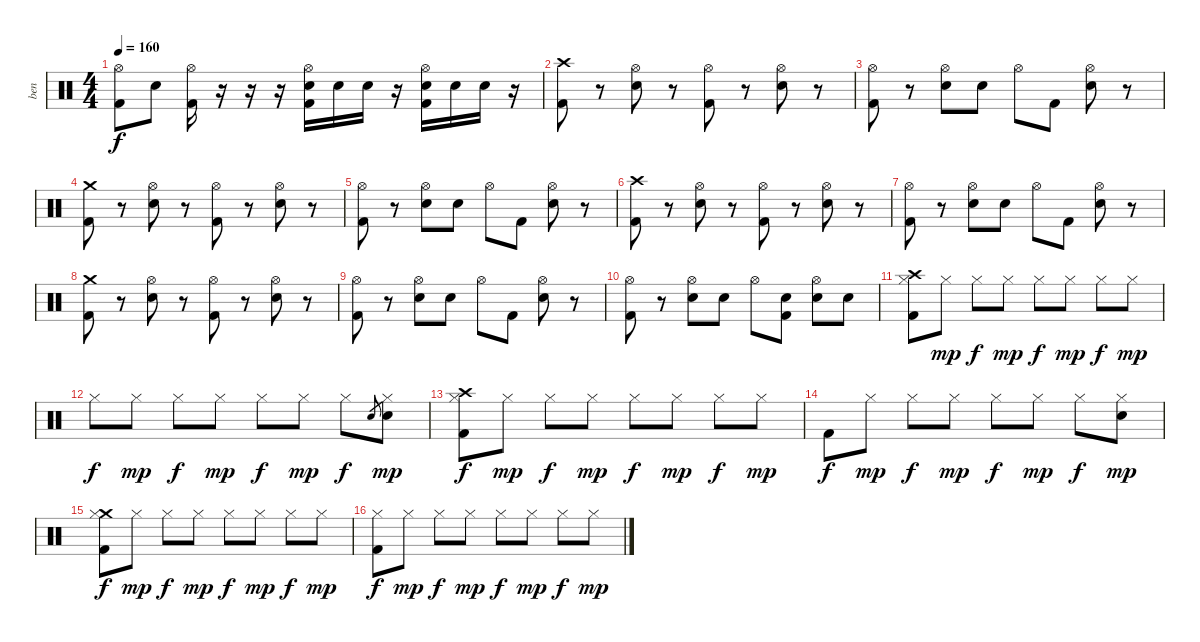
\track ("ben" "ben") {instrument percussion}
\staff {score}
\articulation defaults
\ts (4 4)
\tempo 160
\clef neutral
\ks c
("Hi-Hat (open)" "Kick (hit) 2").8{dy f} "Electric Snare (hit)".8 ("Hi-Hat (open)" "Kick (hit) 2").16 r.16 r.16 r.16 ("Hi-Hat (open)" "Electric Snare (hit)" "Kick (hit) 2").16 "Electric Snare (hit)".16 "Electric Snare (hit)".16 r.16 ("Hi-Hat (open)" "Electric Snare (hit)" "Kick (hit) 2").16 "Electric Snare (hit)".16 "Electric Snare (hit)".16 r.16 |
("Crash high (hit)" "Kick (hit) 2").8 r.8 ("Hi-Hat (open)" "Electric Snare (hit)").8 r.8 ("Hi-Hat (open)" "Kick (hit) 2").8 r.8 ("Hi-Hat (open)" "Electric Snare (hit)").8 r.8 |
("Hi-Hat (open)" "Kick (hit) 2").8 r.8 ("Hi-Hat (open)" "Electric Snare (hit)").8 "Electric Snare (hit)".8 "Hi-Hat (open)".8 "Kick (hit) 2".8 ("Hi-Hat (open)" "Electric Snare (hit)").8 r.8 |
("Crash medium (hit)" "Kick (hit) 2").8 r.8 ("Hi-Hat (open)" "Electric Snare (hit)").8 r.8 ("Hi-Hat (open)" "Kick (hit) 2").8 r.8 ("Hi-Hat (open)" "Electric Snare (hit)").8 r.8 |
("Hi-Hat (open)" "Kick (hit) 2").8 r.8 ("Hi-Hat (open)" "Electric Snare (hit)").8 "Electric Snare (hit)".8 "Hi-Hat (open)".8 "Kick (hit) 2".8 ("Hi-Hat (open)" "Electric Snare (hit)").8 r.8 |
("Crash high (hit)" "Kick (hit) 2").8 r.8 ("Hi-Hat (open)" "Electric Snare (hit)").8 r.8 ("Hi-Hat (open)" "Kick (hit) 2").8 r.8 ("Hi-Hat (open)" "Electric Snare (hit)").8 r.8 |
("Hi-Hat (open)" "Kick (hit) 2").8 r.8 ("Hi-Hat (open)" "Electric Snare (hit)").8 "Electric Snare (hit)".8 "Hi-Hat (open)".8 "Kick (hit) 2".8 ("Hi-Hat (open)" "Electric Snare (hit)").8 r.8 |
("Crash medium (hit)" "Kick (hit) 2").8 r.8 ("Hi-Hat (open)" "Electric Snare (hit)").8 r.8 ("Hi-Hat (open)" "Kick (hit) 2").8 r.8 ("Hi-Hat (open)" "Electric Snare (hit)").8 r.8 |
("Hi-Hat (open)" "Kick (hit) 2").8 r.8 ("Hi-Hat (open)" "Electric Snare (hit)").8 "Electric Snare (hit)".8 "Hi-Hat (open)".8 "Kick (hit) 2".8 ("Hi-Hat (open)" "Electric Snare (hit)").8 r.8 |
("Hi-Hat (open)" "Kick (hit) 2").8 r.8 ("Hi-Hat (open)" "Electric Snare (hit)").8 "Electric Snare (hit)".8 "Hi-Hat (open)".8 ("Electric Snare (hit)" "Kick (hit) 2").8 ("Hi-Hat (open)" "Electric Snare (hit)").8 "Electric Snare (hit)".8 |
("Crash high (hit)" "Hi-Hat (closed)" "Kick (hit) 2").8 "Hi-Hat (closed)".8{dy mp} "Hi-Hat (closed)".8{dy f} "Hi-Hat (closed)".8{dy mp} "Hi-Hat (closed)".8{dy f} "Hi-Hat (closed)".8{dy mp} "Hi-Hat (closed)".8{dy f} "Hi-Hat (closed)".8{dy mp} |
"Hi-Hat (closed)".8{dy f} "Hi-Hat (closed)".8{dy mp} "Hi-Hat (closed)".8{dy f} "Hi-Hat (closed)".8{dy mp} "Hi-Hat (closed)".8{dy f} "Hi-Hat (closed)".8{dy mp} "Hi-Hat (closed)".8{dy f} "Snare (hit) 2".8{gr} ("Electric Snare (hit)" "Hi-Hat (closed)").8{dy mp} |
("Crash high (hit)" "Hi-Hat (closed)" "Kick (hit) 2").8{dy f} "Hi-Hat (closed)".8{dy mp} "Hi-Hat (closed)".8{dy f} "Hi-Hat (closed)".8{dy mp} "Hi-Hat (closed)".8{dy f} "Hi-Hat (closed)".8{dy mp} "Hi-Hat (closed)".8{dy f} "Hi-Hat (closed)".8{dy mp} |
"Kick (hit) 2".8{dy f} "Hi-Hat (closed)".8{dy mp} "Hi-Hat (closed)".8{dy f} "Hi-Hat (closed)".8{dy mp} "Hi-Hat (closed)".8{dy f} "Hi-Hat (closed)".8{dy mp} "Hi-Hat (closed)".8{dy f} ("Electric Snare (hit)" "Hi-Hat (closed)").8{dy mp} |
("Crash medium (hit)" "Kick (hit) 2" "Hi-Hat (closed)").8{dy f} "Hi-Hat (closed)".8{dy mp} "Hi-Hat (closed)".8{dy f} "Hi-Hat (closed)".8{dy mp} "Hi-Hat (closed)".8{dy f} "Hi-Hat (closed)".8{dy mp} "Hi-Hat (closed)".8{dy f} "Hi-Hat (closed)".8{dy mp} |
("Hi-Hat (closed)" "Kick (hit) 2").8{dy f} "Hi-Hat (closed)".8{dy mp} "Hi-Hat (closed)".8{dy f} "Hi-Hat (closed)".8{dy mp} "Hi-Hat (closed)".8{dy f} "Hi-Hat (closed)".8{dy mp} "Hi-Hat (closed)".8{dy f} "Hi-Hat (closed)".8{dy mp}
